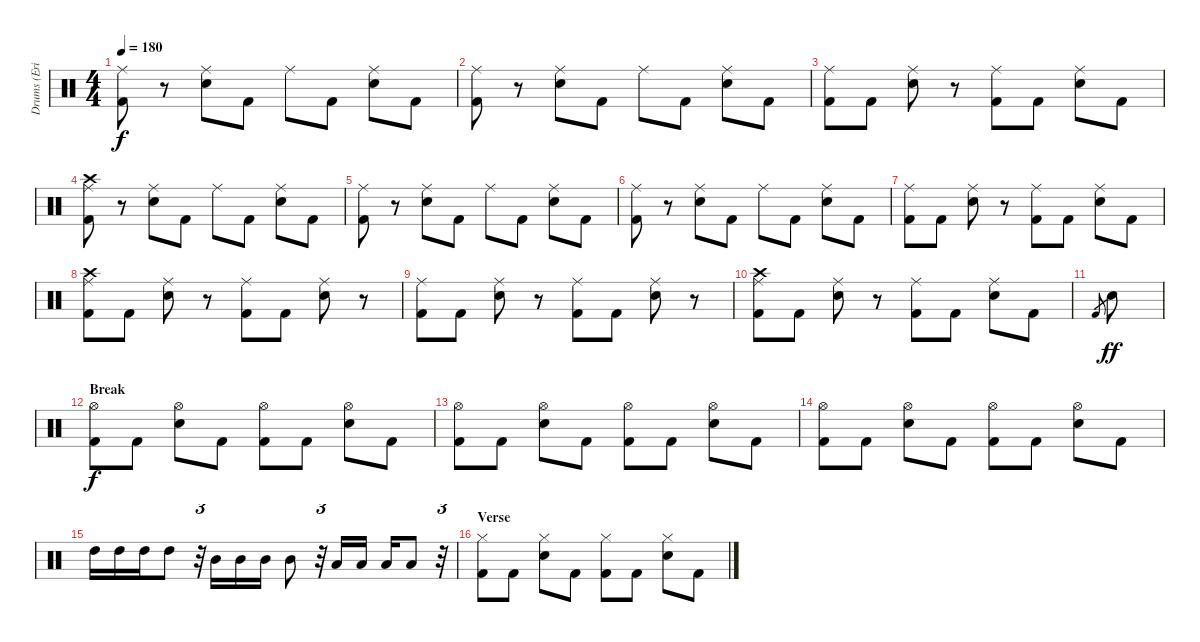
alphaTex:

\track ("Drums (Eric Young)" "Drums (Eri") {instrument percussion}
\staff {score}
\articulation defaults
\ts (4 4)
\tempo 180
\clef neutral
\ks c
("Ride (middle)" "Kick (hit) 2").8{dy f} r.8 ("Ride (middle)" "Snare (hit) 2").8 "Kick (hit) 2".8 "Ride (middle)".8 "Kick (hit) 2".8 ("Ride (middle)" "Snare (hit) 2").8 "Kick (hit) 2".8 |
("Ride (middle)" "Kick (hit) 2").8 r.8 ("Ride (middle)" "Snare (hit) 2").8 "Kick (hit) 2".8 "Ride (middle)".8 "Kick (hit) 2".8 ("Ride (middle)" "Snare (hit) 2").8 "Kick (hit) 2".8 |
("Ride (middle)" "Kick (hit) 2").8 "Kick (hit) 2".8 ("Ride (middle)" "Snare (hit) 2").8 r.8 ("Ride (middle)" "Kick (hit) 2").8 "Kick (hit) 2".8 ("Ride (middle)" "Snare (hit) 2").8 "Kick (hit) 2".8 |
("Crash high (hit)" "Ride (middle)" "Kick (hit) 2").8 r.8 ("Ride (middle)" "Snare (hit) 2").8 "Kick (hit) 2".8 "Ride (middle)".8 "Kick (hit) 2".8 ("Ride (middle)" "Snare (hit) 2").8 "Kick (hit) 2".8 |
("Ride (middle)" "Kick (hit) 2").8 r.8 ("Ride (middle)" "Snare (hit) 2").8 "Kick (hit) 2".8 "Ride (middle)".8 "Kick (hit) 2".8 ("Ride (middle)" "Snare (hit) 2").8 "Kick (hit) 2".8 |
("Ride (middle)" "Kick (hit) 2").8 r.8 ("Ride (middle)" "Snare (hit) 2").8 "Kick (hit) 2".8 "Ride (middle)".8 "Kick (hit) 2".8 ("Ride (middle)" "Snare (hit) 2").8 "Kick (hit) 2".8 |
("Ride (middle)" "Kick (hit) 2").8 "Kick (hit) 2".8 ("Ride (middle)" "Snare (hit) 2").8 r.8 ("Ride (middle)" "Kick (hit) 2").8 "Kick (hit) 2".8 ("Ride (middle)" "Snare (hit) 2").8 "Kick (hit) 2".8 |
("Crash high (hit)" "Ride (middle)" "Kick (hit) 2").8 "Kick (hit) 2".8 ("Ride (middle)" "Snare (hit) 2").8 r.8 ("Ride (middle)" "Kick (hit) 2").8 "Kick (hit) 2".8 ("Ride (middle)" "Snare (hit) 2").8 r.8 |
("Ride (middle)" "Kick (hit) 2").8 "Kick (hit) 2".8 ("Ride (middle)" "Snare (hit) 2").8 r.8 ("Ride (middle)" "Kick (hit) 2").8 "Kick (hit) 2".8 ("Ride (middle)" "Snare (hit) 2").8 r.8 |
("Crash high (hit)" "Ride (middle)" "Kick (hit) 2").8 "Kick (hit) 2".8 ("Ride (middle)" "Snare (hit) 2").8 r.8 ("Ride (middle)" "Kick (hit) 2").8 "Kick (hit) 2".8 ("Ride (middle)" "Snare (hit) 2").8 "Kick (hit) 2".8 |
"Kick (hit) 2".8{gr} "Snare (hit) 2".8{dy ff} |
\section ("" "Break")
("Hi-Hat (open)" "Kick (hit) 2").8{dy f} "Kick (hit) 2".8 ("Hi-Hat (open)" "Snare (hit) 2").8 "Kick (hit) 2".8 ("Hi-Hat (open)" "Kick (hit) 2").8 "Kick (hit) 2".8 ("Hi-Hat (open)" "Snare (hit) 2").8 "Kick (hit) 2".8 |
("Hi-Hat (open)" "Kick (hit) 2").8 "Kick (hit) 2".8 ("Hi-Hat (open)" "Snare (hit) 2").8 "Kick (hit) 2".8 ("Hi-Hat (open)" "Kick (hit) 2").8 "Kick (hit) 2".8 ("Hi-Hat (open)" "Snare (hit) 2").8 "Kick (hit) 2".8 |
("Hi-Hat (open)" "Kick (hit) 2").8 "Kick (hit) 2".8 ("Hi-Hat (open)" "Snare (hit) 2").8 "Kick (hit) 2".8 ("Hi-Hat (open)" "Kick (hit) 2").8 "Kick (hit) 2".8 ("Hi-Hat (open)" "Snare (hit) 2").8 "Kick (hit) 2".8 |
"High Tom (hit)".16 "High Tom (hit)".16 "High Tom (hit)".16 "High Tom (hit)".8 r.32{tu (3 2)} "Mid Tom (hit)".16 "Mid Tom (hit)".16 "Mid Tom (hit)".16 "Mid Tom (hit)".8 r.32{tu (3 2)} "Low Tom (hit)".16 "Low Tom (hit)".16 "Low Tom (hit)".16 "Low Tom (hit)".8 r.32{tu (3 2)} |
\section ("" "Verse")
("Hi-Hat (closed)" "Kick (hit) 2").8 "Kick (hit) 2".8 ("Hi-Hat (closed)" "Snare (hit) 2").8 "Kick (hit) 2".8 ("Hi-Hat (closed)" "Kick (hit) 2").8 "Kick (hit) 2".8 ("Hi-Hat (closed)" "Snare (hit) 2").8 "Kick (hit) 2".8
